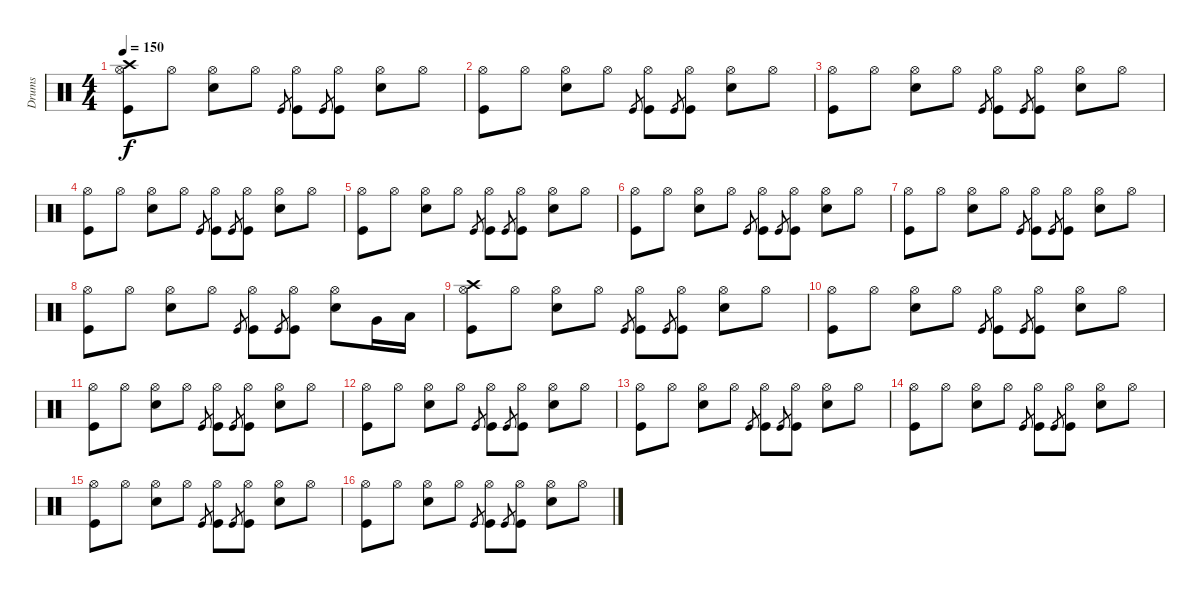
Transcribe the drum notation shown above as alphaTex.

\track ("Drums" "Drums") {instrument percussion}
\staff {score}
\articulation defaults
\ts (4 4)
\section ("" "")
\tempo 150
\clef neutral
\ks c
("Crash high (hit)" "Hi-Hat (open)" "Kick (hit)").8{dy f} "Hi-Hat (open)".8 ("Hi-Hat (open)" "Snare (hit) 2").8 "Hi-Hat (open)".8 "Kick (hit)".8{gr} ("Hi-Hat (open)" "Kick (hit)").8 "Kick (hit)".8{gr} ("Hi-Hat (open)" "Kick (hit)").8 ("Hi-Hat (open)" "Snare (hit) 2").8 "Hi-Hat (open)".8 |
("Hi-Hat (open)" "Kick (hit)").8 "Hi-Hat (open)".8 ("Hi-Hat (open)" "Snare (hit) 2").8 "Hi-Hat (open)".8 "Kick (hit)".8{gr} ("Hi-Hat (open)" "Kick (hit)").8 "Kick (hit)".8{gr} ("Hi-Hat (open)" "Kick (hit)").8 ("Hi-Hat (open)" "Snare (hit) 2").8 "Hi-Hat (open)".8 |
("Hi-Hat (open)" "Kick (hit)").8 "Hi-Hat (open)".8 ("Hi-Hat (open)" "Snare (hit) 2").8 "Hi-Hat (open)".8 "Kick (hit)".8{gr} ("Hi-Hat (open)" "Kick (hit)").8 "Kick (hit)".8{gr} ("Hi-Hat (open)" "Kick (hit)").8 ("Hi-Hat (open)" "Snare (hit) 2").8 "Hi-Hat (open)".8 |
("Hi-Hat (open)" "Kick (hit)").8 "Hi-Hat (open)".8 ("Hi-Hat (open)" "Snare (hit) 2").8 "Hi-Hat (open)".8 "Kick (hit)".8{gr} ("Hi-Hat (open)" "Kick (hit)").8 "Kick (hit)".8{gr} ("Hi-Hat (open)" "Kick (hit)").8 ("Hi-Hat (open)" "Snare (hit) 2").8 "Hi-Hat (open)".8 |
("Hi-Hat (open)" "Kick (hit)").8 "Hi-Hat (open)".8 ("Hi-Hat (open)" "Snare (hit) 2").8 "Hi-Hat (open)".8 "Kick (hit)".8{gr} ("Hi-Hat (open)" "Kick (hit)").8 "Kick (hit)".8{gr} ("Hi-Hat (open)" "Kick (hit)").8 ("Hi-Hat (open)" "Snare (hit) 2").8 "Hi-Hat (open)".8 |
("Hi-Hat (open)" "Kick (hit)").8 "Hi-Hat (open)".8 ("Hi-Hat (open)" "Snare (hit) 2").8 "Hi-Hat (open)".8 "Kick (hit)".8{gr} ("Hi-Hat (open)" "Kick (hit)").8 "Kick (hit)".8{gr} ("Hi-Hat (open)" "Kick (hit)").8 ("Hi-Hat (open)" "Snare (hit) 2").8 "Hi-Hat (open)".8 |
("Hi-Hat (open)" "Kick (hit)").8 "Hi-Hat (open)".8 ("Hi-Hat (open)" "Snare (hit) 2").8 "Hi-Hat (open)".8 "Kick (hit)".8{gr} ("Hi-Hat (open)" "Kick (hit)").8 "Kick (hit)".8{gr} ("Hi-Hat (open)" "Kick (hit)").8 ("Hi-Hat (open)" "Snare (hit) 2").8 "Hi-Hat (open)".8 |
("Hi-Hat (open)" "Kick (hit)").8 "Hi-Hat (open)".8 ("Hi-Hat (open)" "Snare (hit) 2").8 "Hi-Hat (open)".8 "Kick (hit)".8{gr} ("Hi-Hat (open)" "Kick (hit)").8 "Kick (hit)".8{gr} ("Hi-Hat (open)" "Kick (hit)").8 ("Hi-Hat (open)" "Snare (hit) 2").8 "Very Low Tom (hit)".16 "Low Floor Tom (hit)".16 |
("Crash high (hit)" "Hi-Hat (open)" "Kick (hit)").8 "Hi-Hat (open)".8 ("Hi-Hat (open)" "Snare (hit) 2").8 "Hi-Hat (open)".8 "Kick (hit)".8{gr} ("Hi-Hat (open)" "Kick (hit)").8 "Kick (hit)".8{gr} ("Hi-Hat (open)" "Kick (hit)").8 ("Hi-Hat (open)" "Snare (hit) 2").8 "Hi-Hat (open)".8 |
("Hi-Hat (open)" "Kick (hit)").8 "Hi-Hat (open)".8 ("Hi-Hat (open)" "Snare (hit) 2").8 "Hi-Hat (open)".8 "Kick (hit)".8{gr} ("Hi-Hat (open)" "Kick (hit)").8 "Kick (hit)".8{gr} ("Hi-Hat (open)" "Kick (hit)").8 ("Hi-Hat (open)" "Snare (hit) 2").8 "Hi-Hat (open)".8 |
("Hi-Hat (open)" "Kick (hit)").8 "Hi-Hat (open)".8 ("Hi-Hat (open)" "Snare (hit) 2").8 "Hi-Hat (open)".8 "Kick (hit)".8{gr} ("Hi-Hat (open)" "Kick (hit)").8 "Kick (hit)".8{gr} ("Hi-Hat (open)" "Kick (hit)").8 ("Hi-Hat (open)" "Snare (hit) 2").8 "Hi-Hat (open)".8 |
("Hi-Hat (open)" "Kick (hit)").8 "Hi-Hat (open)".8 ("Hi-Hat (open)" "Snare (hit) 2").8 "Hi-Hat (open)".8 "Kick (hit)".8{gr} ("Hi-Hat (open)" "Kick (hit)").8 "Kick (hit)".8{gr} ("Hi-Hat (open)" "Kick (hit)").8 ("Hi-Hat (open)" "Snare (hit) 2").8 "Hi-Hat (open)".8 |
("Hi-Hat (open)" "Kick (hit)").8 "Hi-Hat (open)".8 ("Hi-Hat (open)" "Snare (hit) 2").8 "Hi-Hat (open)".8 "Kick (hit)".8{gr} ("Hi-Hat (open)" "Kick (hit)").8 "Kick (hit)".8{gr} ("Hi-Hat (open)" "Kick (hit)").8 ("Hi-Hat (open)" "Snare (hit) 2").8 "Hi-Hat (open)".8 |
("Hi-Hat (open)" "Kick (hit)").8 "Hi-Hat (open)".8 ("Hi-Hat (open)" "Snare (hit) 2").8 "Hi-Hat (open)".8 "Kick (hit)".8{gr} ("Hi-Hat (open)" "Kick (hit)").8 "Kick (hit)".8{gr} ("Hi-Hat (open)" "Kick (hit)").8 ("Hi-Hat (open)" "Snare (hit) 2").8 "Hi-Hat (open)".8 |
("Hi-Hat (open)" "Kick (hit)").8 "Hi-Hat (open)".8 ("Hi-Hat (open)" "Snare (hit) 2").8 "Hi-Hat (open)".8 "Kick (hit)".8{gr} ("Hi-Hat (open)" "Kick (hit)").8 "Kick (hit)".8{gr} ("Hi-Hat (open)" "Kick (hit)").8 ("Hi-Hat (open)" "Snare (hit) 2").8 "Hi-Hat (open)".8 |
("Hi-Hat (open)" "Kick (hit)").8 "Hi-Hat (open)".8 ("Hi-Hat (open)" "Snare (hit) 2").8 "Hi-Hat (open)".8 "Kick (hit)".8{gr} ("Hi-Hat (open)" "Kick (hit)").8 "Kick (hit)".8{gr} ("Hi-Hat (open)" "Kick (hit)").8 ("Hi-Hat (open)" "Snare (hit) 2").8 "Hi-Hat (open)".8
